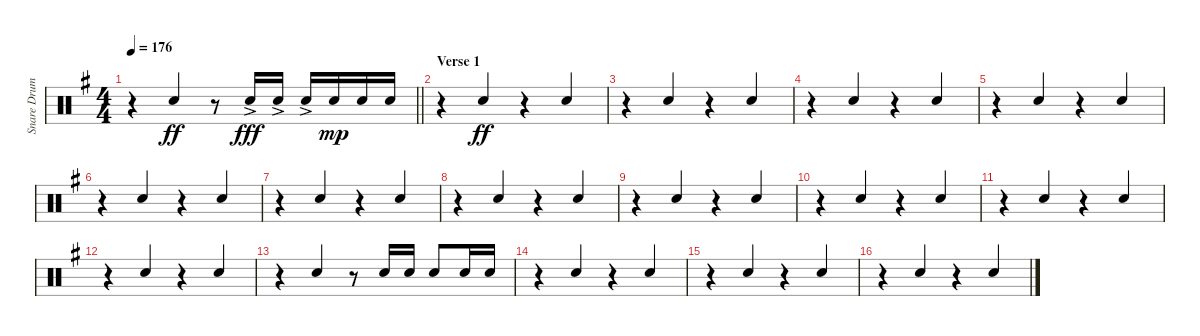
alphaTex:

\track ("Snare Drum" "Snare Drum") {instrument percussion}
\staff {score}
\articulation defaults
\ts (4 4)
\tempo 176
\clef neutral
\barLineRight lightlight
\ks eminor
r.4{dy ff} "Electric Snare (hit)".4{beam Up} r.8 "Electric Snare (hit)"{ac}.16{dy fff beam Up} "Electric Snare (hit)"{ac}.16{beam Up} "Electric Snare (hit)"{ac}.16{beam Up} "Electric Snare (hit)".16{dy mp beam Up} "Electric Snare (hit)".16{beam Up} "Electric Snare (hit)".16{beam Up} |
\section ("" "Verse 1")
r.4 "Electric Snare (hit)".4{dy ff beam Up} r.4 "Electric Snare (hit)".4{beam Up} |
r.4 "Electric Snare (hit)".4{beam Up} r.4 "Electric Snare (hit)".4{beam Up} |
r.4 "Electric Snare (hit)".4{beam Up} r.4 "Electric Snare (hit)".4{beam Up} |
r.4 "Electric Snare (hit)".4{beam Up} r.4 "Electric Snare (hit)".4{beam Up} |
r.4 "Electric Snare (hit)".4{beam Up} r.4 "Electric Snare (hit)".4{beam Up} |
r.4 "Electric Snare (hit)".4{beam Up} r.4 "Electric Snare (hit)".4{beam Up} |
r.4 "Electric Snare (hit)".4{beam Up} r.4 "Electric Snare (hit)".4{beam Up} |
r.4 "Electric Snare (hit)".4{beam Up} r.4 "Electric Snare (hit)".4{beam Up} |
r.4 "Electric Snare (hit)".4{beam Up} r.4 "Electric Snare (hit)".4{beam Up} |
r.4 "Electric Snare (hit)".4{beam Up} r.4 "Electric Snare (hit)".4{beam Up} |
r.4 "Electric Snare (hit)".4{beam Up} r.4 "Electric Snare (hit)".4{beam Up} |
r.4 "Electric Snare (hit)".4{beam Up} r.8{beam merge} "Electric Snare (hit)".16{beam Up} "Electric Snare (hit)".16{beam Up} "Electric Snare (hit)".8{beam Up} "Electric Snare (hit)".16{beam Up} "Electric Snare (hit)".16{beam Up} |
r.4 "Electric Snare (hit)".4{beam Up} r.4 "Electric Snare (hit)".4{beam Up} |
r.4 "Electric Snare (hit)".4{beam Up} r.4 "Electric Snare (hit)".4{beam Up} |
r.4 "Electric Snare (hit)".4{beam Up} r.4 "Electric Snare (hit)".4{beam Up}
